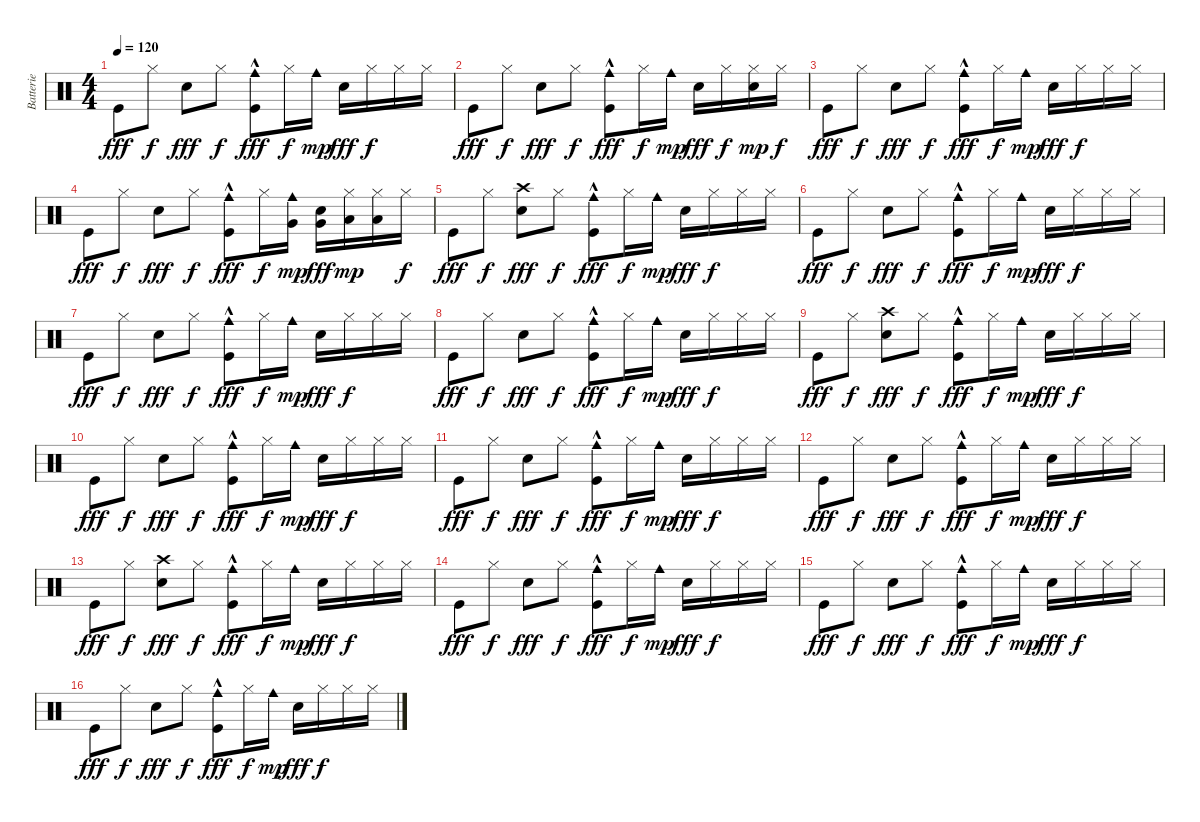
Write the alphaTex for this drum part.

\track ("Batterie" "Batterie") {instrument percussion}
\staff {score}
\articulation defaults
\ts (4 4)
\tempo 120
\clef neutral
\ks c "Kick (hit)".8{dy fff} "Hi-Hat (closed)".8{dy f} "Snare (hit) 2".8{dy fff} "Hi-Hat (closed)".8{dy f}
("Cowbell medium (hit)"{hac} "Kick (hit)").8{dy fff} "Hi-Hat (closed)".16{dy f} "Cowbell medium (hit)".16{dy mp} "Snare (hit) 2".16{dy fff} "Hi-Hat (closed)".16{dy f} "Hi-Hat (closed)".16 "Hi-Hat (closed)".16 |
"Kick (hit)".8{dy fff} "Hi-Hat (closed)".8{dy f} "Snare (hit) 2".8{dy fff} "Hi-Hat (closed)".8{dy f} ("Cowbell medium (hit)"{hac} "Kick (hit)").8{dy fff} "Hi-Hat (closed)".16{dy f} "Cowbell medium (hit)".16{dy mp} "Snare (hit) 2".16{dy fff} "Hi-Hat (closed)".16{dy f} ("Hand Clap (hit)" "Hi-Hat (closed)").16{dy mp} "Hi-Hat (closed)".16{dy f} |
"Kick (hit)".8{dy fff} "Hi-Hat (closed)".8{dy f} "Snare (hit) 2".8{dy fff} "Hi-Hat (closed)".8{dy f} ("Cowbell medium (hit)"{hac} "Kick (hit)").8{dy fff} "Hi-Hat (closed)".16{dy f} "Cowbell medium (hit)".16{dy mp} "Snare (hit) 2".16{dy fff} "Hi-Hat (closed)".16{dy f} "Hi-Hat (closed)".16 "Hi-Hat (closed)".16 |
"Kick (hit)".8{dy fff} "Hi-Hat (closed)".8{dy f} "Snare (hit) 2".8{dy fff} "Hi-Hat (closed)".8{dy f} ("Cowbell medium (hit)"{hac} "Kick (hit)").8{dy fff} "Hi-Hat (closed)".16{dy f} ("Very Low Tom (hit)" "Cowbell medium (hit)").16{dy mp} ("Very Low Tom (hit)" "Snare (hit) 2").16{dy fff} ("Low Floor Tom (hit)" "Hi-Hat (closed)").16{dy mp} ("Low Floor Tom (hit)" "Hi-Hat (closed)").16 "Hi-Hat (closed)".16{dy f} |
"Kick (hit)".8{dy fff} "Hi-Hat (closed)".8{dy f} ("Crash high (hit)" "Snare (hit) 2").8{dy fff} "Hi-Hat (closed)".8{dy f} ("Cowbell medium (hit)"{hac} "Kick (hit)").8{dy fff} "Hi-Hat (closed)".16{dy f} "Cowbell medium (hit)".16{dy mp} "Snare (hit) 2".16{dy fff} "Hi-Hat (closed)".16{dy f} "Hi-Hat (closed)".16 "Hi-Hat (closed)".16 |
"Kick (hit)".8{dy fff} "Hi-Hat (closed)".8{dy f} "Snare (hit) 2".8{dy fff} "Hi-Hat (closed)".8{dy f} ("Cowbell medium (hit)"{hac} "Kick (hit)").8{dy fff} "Hi-Hat (closed)".16{dy f} "Cowbell medium (hit)".16{dy mp} "Snare (hit) 2".16{dy fff} "Hi-Hat (closed)".16{dy f} "Hi-Hat (closed)".16 "Hi-Hat (closed)".16 |
"Kick (hit)".8{dy fff} "Hi-Hat (closed)".8{dy f} "Snare (hit) 2".8{dy fff} "Hi-Hat (closed)".8{dy f} ("Cowbell medium (hit)"{hac} "Kick (hit)").8{dy fff} "Hi-Hat (closed)".16{dy f} "Cowbell medium (hit)".16{dy mp} "Snare (hit) 2".16{dy fff} "Hi-Hat (closed)".16{dy f} "Hi-Hat (closed)".16 "Hi-Hat (closed)".16 |
"Kick (hit)".8{dy fff} "Hi-Hat (closed)".8{dy f} "Snare (hit) 2".8{dy fff} "Hi-Hat (closed)".8{dy f} ("Cowbell medium (hit)"{hac} "Kick (hit)").8{dy fff} "Hi-Hat (closed)".16{dy f} "Cowbell medium (hit)".16{dy mp} "Snare (hit) 2".16{dy fff} "Hi-Hat (closed)".16{dy f} "Hi-Hat (closed)".16 "Hi-Hat (closed)".16 |
"Kick (hit)".8{dy fff} "Hi-Hat (closed)".8{dy f} ("Crash high (hit)" "Snare (hit) 2").8{dy fff} "Hi-Hat (closed)".8{dy f} ("Cowbell medium (hit)"{hac} "Kick (hit)").8{dy fff} "Hi-Hat (closed)".16{dy f} "Cowbell medium (hit)".16{dy mp} "Snare (hit) 2".16{dy fff} "Hi-Hat (closed)".16{dy f} "Hi-Hat (closed)".16 "Hi-Hat (closed)".16 |
"Kick (hit)".8{dy fff} "Hi-Hat (closed)".8{dy f} "Snare (hit) 2".8{dy fff} "Hi-Hat (closed)".8{dy f} ("Cowbell medium (hit)"{hac} "Kick (hit)").8{dy fff} "Hi-Hat (closed)".16{dy f} "Cowbell medium (hit)".16{dy mp} "Snare (hit) 2".16{dy fff} "Hi-Hat (closed)".16{dy f} "Hi-Hat (closed)".16 "Hi-Hat (closed)".16 |
"Kick (hit)".8{dy fff} "Hi-Hat (closed)".8{dy f} "Snare (hit) 2".8{dy fff} "Hi-Hat (closed)".8{dy f} ("Cowbell medium (hit)"{hac} "Kick (hit)").8{dy fff} "Hi-Hat (closed)".16{dy f} "Cowbell medium (hit)".16{dy mp} "Snare (hit) 2".16{dy fff} "Hi-Hat (closed)".16{dy f} "Hi-Hat (closed)".16 "Hi-Hat (closed)".16 |
"Kick (hit)".8{dy fff} "Hi-Hat (closed)".8{dy f} "Snare (hit) 2".8{dy fff} "Hi-Hat (closed)".8{dy f} ("Cowbell medium (hit)"{hac} "Kick (hit)").8{dy fff} "Hi-Hat (closed)".16{dy f} "Cowbell medium (hit)".16{dy mp} "Snare (hit) 2".16{dy fff} "Hi-Hat (closed)".16{dy f} "Hi-Hat (closed)".16 "Hi-Hat (closed)".16 |
"Kick (hit)".8{dy fff} "Hi-Hat (closed)".8{dy f} ("Crash high (hit)" "Snare (hit) 2").8{dy fff} "Hi-Hat (closed)".8{dy f} ("Cowbell medium (hit)"{hac} "Kick (hit)").8{dy fff} "Hi-Hat (closed)".16{dy f} "Cowbell medium (hit)".16{dy mp} "Snare (hit) 2".16{dy fff} "Hi-Hat (closed)".16{dy f} "Hi-Hat (closed)".16 "Hi-Hat (closed)".16 |
"Kick (hit)".8{dy fff} "Hi-Hat (closed)".8{dy f} "Snare (hit) 2".8{dy fff} "Hi-Hat (closed)".8{dy f} ("Cowbell medium (hit)"{hac} "Kick (hit)").8{dy fff} "Hi-Hat (closed)".16{dy f} "Cowbell medium (hit)".16{dy mp} "Snare (hit) 2".16{dy fff} "Hi-Hat (closed)".16{dy f} "Hi-Hat (closed)".16 "Hi-Hat (closed)".16 |
"Kick (hit)".8{dy fff} "Hi-Hat (closed)".8{dy f} "Snare (hit) 2".8{dy fff} "Hi-Hat (closed)".8{dy f} ("Cowbell medium (hit)"{hac} "Kick (hit)").8{dy fff} "Hi-Hat (closed)".16{dy f} "Cowbell medium (hit)".16{dy mp} "Snare (hit) 2".16{dy fff} "Hi-Hat (closed)".16{dy f} "Hi-Hat (closed)".16 "Hi-Hat (closed)".16 |
"Kick (hit)".8{dy fff} "Hi-Hat (closed)".8{dy f} "Snare (hit) 2".8{dy fff} "Hi-Hat (closed)".8{dy f} ("Cowbell medium (hit)"{hac} "Kick (hit)").8{dy fff} "Hi-Hat (closed)".16{dy f} "Cowbell medium (hit)".16{dy mp} "Snare (hit) 2".16{dy fff} "Hi-Hat (closed)".16{dy f} "Hi-Hat (closed)".16 "Hi-Hat (closed)".16
